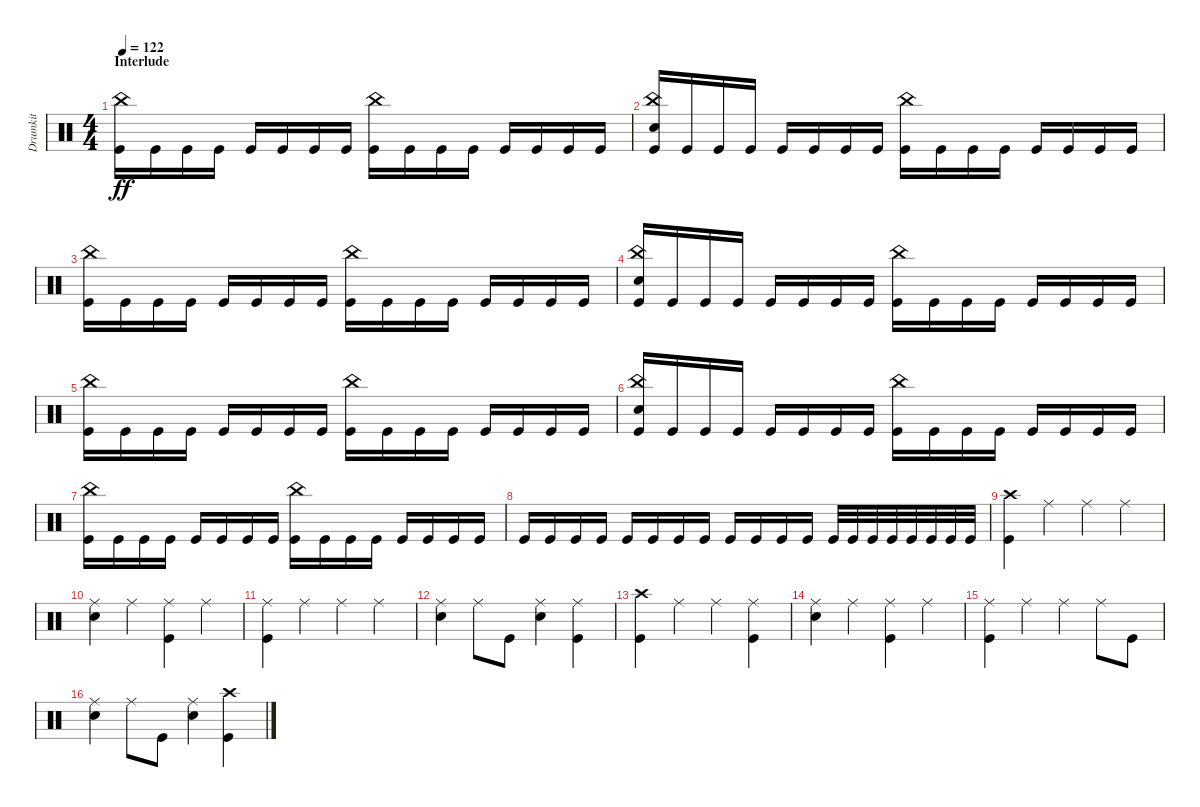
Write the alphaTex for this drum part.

\track ("Drumkit" "Drumkit") {instrument percussion}
\staff {score}
\articulation defaults
\ts (4 4)
\section ("" "Interlude")
\tempo 122
\clef neutral
\ks c
("Kick (hit)" "China (hit)").16{dy ff} "Kick (hit)".16 "Kick (hit)".16 "Kick (hit)".16 "Kick (hit)".16 "Kick (hit)".16 "Kick (hit)".16 "Kick (hit)".16 ("Kick (hit)" "China (hit)").16 "Kick (hit)".16 "Kick (hit)".16 "Kick (hit)".16 "Kick (hit)".16 "Kick (hit)".16 "Kick (hit)".16 "Kick (hit)".16 |
("Kick (hit)" "China (hit)" "Snare (hit) 2").16 "Kick (hit)".16 "Kick (hit)".16 "Kick (hit)".16 "Kick (hit)".16 "Kick (hit)".16 "Kick (hit)".16 "Kick (hit)".16 ("Kick (hit)" "China (hit)").16 "Kick (hit)".16 "Kick (hit)".16 "Kick (hit)".16 "Kick (hit)".16 "Kick (hit)".16 "Kick (hit)".16 "Kick (hit)".16 |
("Kick (hit)" "China (hit)").16 "Kick (hit)".16 "Kick (hit)".16 "Kick (hit)".16 "Kick (hit)".16 "Kick (hit)".16 "Kick (hit)".16 "Kick (hit)".16 ("Kick (hit)" "China (hit)").16 "Kick (hit)".16 "Kick (hit)".16 "Kick (hit)".16 "Kick (hit)".16 "Kick (hit)".16 "Kick (hit)".16 "Kick (hit)".16 |
("Kick (hit)" "China (hit)" "Snare (hit) 2").16 "Kick (hit)".16 "Kick (hit)".16 "Kick (hit)".16 "Kick (hit)".16 "Kick (hit)".16 "Kick (hit)".16 "Kick (hit)".16 ("Kick (hit)" "China (hit)").16 "Kick (hit)".16 "Kick (hit)".16 "Kick (hit)".16 "Kick (hit)".16 "Kick (hit)".16 "Kick (hit)".16 "Kick (hit)".16 |
("Kick (hit)" "China (hit)").16 "Kick (hit)".16 "Kick (hit)".16 "Kick (hit)".16 "Kick (hit)".16 "Kick (hit)".16 "Kick (hit)".16 "Kick (hit)".16 ("Kick (hit)" "China (hit)").16 "Kick (hit)".16 "Kick (hit)".16 "Kick (hit)".16 "Kick (hit)".16 "Kick (hit)".16 "Kick (hit)".16 "Kick (hit)".16 |
("Kick (hit)" "China (hit)" "Snare (hit) 2").16 "Kick (hit)".16 "Kick (hit)".16 "Kick (hit)".16 "Kick (hit)".16 "Kick (hit)".16 "Kick (hit)".16 "Kick (hit)".16 ("Kick (hit)" "China (hit)").16 "Kick (hit)".16 "Kick (hit)".16 "Kick (hit)".16 "Kick (hit)".16 "Kick (hit)".16 "Kick (hit)".16 "Kick (hit)".16 |
("Kick (hit)" "China (hit)").16 "Kick (hit)".16 "Kick (hit)".16 "Kick (hit)".16 "Kick (hit)".16 "Kick (hit)".16 "Kick (hit)".16 "Kick (hit)".16 ("Kick (hit)" "China (hit)").16 "Kick (hit)".16 "Kick (hit)".16 "Kick (hit)".16 "Kick (hit)".16 "Kick (hit)".16 "Kick (hit)".16 "Kick (hit)".16 |
"Kick (hit)".16 "Kick (hit)".16 "Kick (hit)".16 "Kick (hit)".16 "Kick (hit)".16 "Kick (hit)".16 "Kick (hit)".16 "Kick (hit)".16 "Kick (hit)".16 "Kick (hit)".16 "Kick (hit)".16 "Kick (hit)".16 "Kick (hit)".32 "Kick (hit)".32 "Kick (hit)".32 "Kick (hit)".32 "Kick (hit)".32 "Kick (hit)".32 "Kick (hit)".32 "Kick (hit)".32 |
("Crash high (hit)" "Kick (hit)").4 "Ride (middle)".4 "Ride (middle)".4 "Ride (middle)".4 |
("Ride (middle)" "Snare (hit) 2").4 "Ride (middle)".4 ("Ride (middle)" "Kick (hit)").4 "Ride (middle)".4 |
("Kick (hit)" "Ride (middle)").4 "Ride (middle)".4 "Ride (middle)".4 "Ride (middle)".4 |
("Ride (middle)" "Snare (hit) 2").4 "Ride (middle)".8 "Kick (hit)".8 ("Ride (middle)" "Snare (hit) 2").4 ("Kick (hit)" "Ride (middle)").4 |
("Crash high (hit)" "Kick (hit)").4 "Ride (middle)".4 "Ride (middle)".4 ("Ride (middle)" "Kick (hit)").4 |
("Ride (middle)" "Snare (hit) 2").4 "Ride (middle)".4 ("Ride (middle)" "Kick (hit)").4 "Ride (middle)".4 |
("Kick (hit)" "Ride (middle)").4 "Ride (middle)".4 "Ride (middle)".4 "Ride (middle)".8 "Kick (hit)".8 |
("Ride (middle)" "Snare (hit) 2").4 "Ride (middle)".8 "Kick (hit)".8 ("Ride (middle)" "Snare (hit) 2").4 ("Kick (hit)" "Crash high (hit)").4
